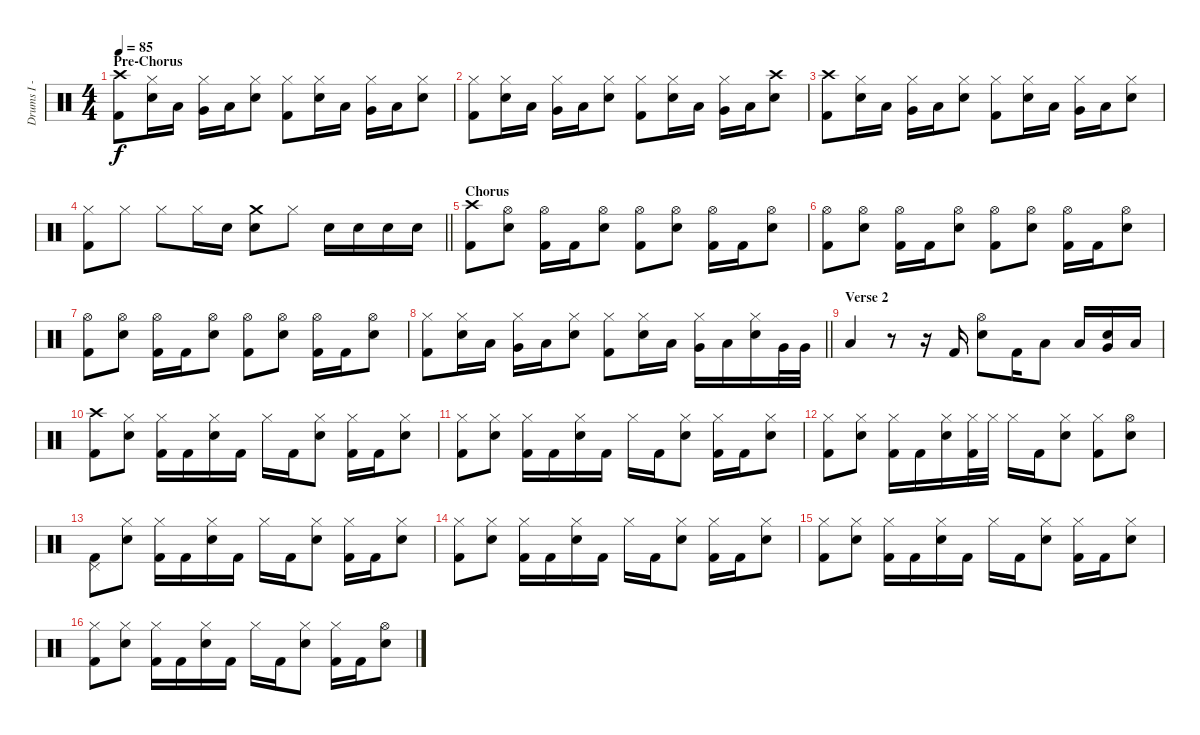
\track ("Drums I - Adam" "Drums I - ") {instrument percussion}
\staff {score}
\articulation defaults
\ts (4 4)
\section ("" "Pre-Chorus")
\tempo 85
\clef neutral
\ks c
("Kick (hit) 2" "Crash high (hit)").8{dy f} ("Snare (hit) 2" "Hi-Hat (closed)").16 "Low Tom (hit)".16 ("Very Low Tom (hit)" "Hi-Hat (closed)").16 "Low Floor Tom (hit)".16 ("Snare (hit) 2" "Hi-Hat (closed)").8 ("Kick (hit) 2" "Hi-Hat (closed)").8 ("Snare (hit) 2" "Hi-Hat (closed)").16 "Low Tom (hit)".16 ("Very Low Tom (hit)" "Hi-Hat (closed)").16 "Low Floor Tom (hit)".16 ("Snare (hit) 2" "Hi-Hat (closed)").8 |
("Kick (hit) 2" "Hi-Hat (closed)").8 ("Snare (hit) 2" "Hi-Hat (closed)").16 "Low Tom (hit)".16 ("Very Low Tom (hit)" "Hi-Hat (closed)").16 "Low Floor Tom (hit)".16 ("Snare (hit) 2" "Hi-Hat (closed)").8 ("Kick (hit) 2" "Hi-Hat (closed)").8 ("Snare (hit) 2" "Hi-Hat (closed)").16 "Low Tom (hit)".16 ("Very Low Tom (hit)" "Hi-Hat (closed)").16 "Low Floor Tom (hit)".16 ("Snare (hit) 2" "Crash high (hit)").8 |
("Kick (hit) 2" "Crash high (hit)").8 ("Snare (hit) 2" "Hi-Hat (closed)").16 "Low Tom (hit)".16 ("Very Low Tom (hit)" "Hi-Hat (closed)").16 "Low Floor Tom (hit)".16 ("Snare (hit) 2" "Hi-Hat (closed)").8 ("Kick (hit) 2" "Hi-Hat (closed)").8 ("Snare (hit) 2" "Hi-Hat (closed)").16 "Low Tom (hit)".16 ("Very Low Tom (hit)" "Hi-Hat (closed)").16 "Low Floor Tom (hit)".16 ("Snare (hit) 2" "Hi-Hat (closed)").8 |
\barLineRight lightlight
("Kick (hit) 2" "Hi-Hat (closed)").8 "Hi-Hat (closed)".8 "Hi-Hat (closed)".8 "Hi-Hat (closed)".16 "Snare (hit) 2".16 ("Snare (hit) 2" "Crash medium (hit)").8 "Hi-Hat (closed)".8 "Snare (hit) 2".16 "Snare (hit) 2".16 "Snare (hit) 2".16 "Snare (hit) 2".16 |
\section ("" "Chorus")
("Kick (hit) 2" "Crash high (hit)").8 ("Snare (hit) 2" "Hi-Hat (open)").8 ("Kick (hit) 2" "Hi-Hat (open)").16 "Kick (hit) 2".16 ("Snare (hit) 2" "Hi-Hat (open)").8 ("Kick (hit) 2" "Hi-Hat (open)").8 ("Snare (hit) 2" "Hi-Hat (open)").8 ("Kick (hit) 2" "Hi-Hat (open)").16 "Kick (hit) 2".16 ("Snare (hit) 2" "Hi-Hat (open)").8 |
("Kick (hit) 2" "Hi-Hat (open)").8 ("Snare (hit) 2" "Hi-Hat (open)").8 ("Kick (hit) 2" "Hi-Hat (open)").16 "Kick (hit) 2".16 ("Snare (hit) 2" "Hi-Hat (open)").8 ("Kick (hit) 2" "Hi-Hat (open)").8 ("Snare (hit) 2" "Hi-Hat (open)").8 ("Kick (hit) 2" "Hi-Hat (open)").16 "Kick (hit) 2".16 ("Snare (hit) 2" "Hi-Hat (open)").8 |
("Kick (hit) 2" "Hi-Hat (open)").8 ("Snare (hit) 2" "Hi-Hat (open)").8 ("Kick (hit) 2" "Hi-Hat (open)").16 "Kick (hit) 2".16 ("Snare (hit) 2" "Hi-Hat (open)").8 ("Kick (hit) 2" "Hi-Hat (open)").8 ("Snare (hit) 2" "Hi-Hat (open)").8 ("Kick (hit) 2" "Hi-Hat (open)").16 "Kick (hit) 2".16 ("Snare (hit) 2" "Hi-Hat (open)").8 |
\barLineRight lightlight
("Kick (hit) 2" "Hi-Hat (closed)").8 ("Snare (hit) 2" "Hi-Hat (closed)").16 "Low Tom (hit)".16 ("Very Low Tom (hit)" "Hi-Hat (closed)").16 "Low Floor Tom (hit)".16 ("Snare (hit) 2" "Hi-Hat (closed)").8 ("Kick (hit) 2" "Hi-Hat (closed)").8 ("Snare (hit) 2" "Hi-Hat (closed)").16 "Low Tom (hit)".16 ("Very Low Tom (hit)" "Hi-Hat (closed)").16 "Low Floor Tom (hit)".16 ("Snare (hit) 2" "Hi-Hat (closed)").16 "Very Low Tom (hit)".32 "Very Low Tom (hit)".32 |
\section ("" "Verse 2")
"Low Floor Tom (hit)".4 r.8 r.16 "Kick (hit) 2".16 ("Snare (hit) 2" "Hi-Hat (open)").8 "Kick (hit) 2".16 "Low Tom (hit)".8 "Low Tom (hit)".16 ("Snare (hit) 2" "Very Low Tom (hit)").16 "Low Floor Tom (hit)".16 |
("Kick (hit) 2" "Crash high (hit)").8 ("Snare (hit) 2" "Hi-Hat (closed)").8 ("Kick (hit) 2" "Hi-Hat (closed)").16 "Kick (hit) 2".16 ("Snare (hit) 2" "Hi-Hat (closed)").16 "Kick (hit) 2".16 "Hi-Hat (closed)".16 "Kick (hit) 2".16 ("Snare (hit) 2" "Hi-Hat (closed)").8 ("Kick (hit) 2" "Hi-Hat (closed)").16 "Kick (hit) 2".16 ("Snare (hit) 2" "Hi-Hat (closed)").8 |
("Kick (hit) 2" "Hi-Hat (closed)").8 ("Snare (hit) 2" "Hi-Hat (closed)").8 ("Kick (hit) 2" "Hi-Hat (closed)").16 "Kick (hit) 2".16 ("Snare (hit) 2" "Hi-Hat (closed)").16 "Kick (hit) 2".16 "Hi-Hat (closed)".16 "Kick (hit) 2".16 ("Snare (hit) 2" "Hi-Hat (closed)").8 ("Kick (hit) 2" "Hi-Hat (closed)").16 "Kick (hit) 2".16 ("Snare (hit) 2" "Hi-Hat (closed)").8 |
("Kick (hit) 2" "Hi-Hat (closed)").8 ("Snare (hit) 2" "Hi-Hat (closed)").8 ("Kick (hit) 2" "Hi-Hat (closed)").16 "Kick (hit) 2".16 ("Snare (hit) 2" "Hi-Hat (closed)").16 ("Kick (hit) 2" "Hi-Hat (closed)").32 "Hi-Hat (closed)".32 "Hi-Hat (closed)".16 "Kick (hit) 2".16 ("Snare (hit) 2" "Hi-Hat (closed)").8 ("Kick (hit) 2" "Hi-Hat (closed)").8 ("Snare (hit) 2" "Hi-Hat (open)").8 |
("Kick (hit) 2" "Pedal Hi-Hat (hit)").8 ("Snare (hit) 2" "Hi-Hat (closed)").8 ("Kick (hit) 2" "Hi-Hat (closed)").16 "Kick (hit) 2".16 ("Snare (hit) 2" "Hi-Hat (closed)").16 "Kick (hit) 2".16 "Hi-Hat (closed)".16 "Kick (hit) 2".16 ("Snare (hit) 2" "Hi-Hat (closed)").8 ("Kick (hit) 2" "Hi-Hat (closed)").16 "Kick (hit) 2".16 ("Snare (hit) 2" "Hi-Hat (closed)").8 |
("Kick (hit) 2" "Hi-Hat (closed)").8 ("Snare (hit) 2" "Hi-Hat (closed)").8 ("Kick (hit) 2" "Hi-Hat (closed)").16 "Kick (hit) 2".16 ("Snare (hit) 2" "Hi-Hat (closed)").16 "Kick (hit) 2".16 "Hi-Hat (closed)".16 "Kick (hit) 2".16 ("Snare (hit) 2" "Hi-Hat (closed)").8 ("Kick (hit) 2" "Hi-Hat (closed)").16 "Kick (hit) 2".16 ("Snare (hit) 2" "Hi-Hat (closed)").8 |
("Kick (hit) 2" "Hi-Hat (closed)").8 ("Snare (hit) 2" "Hi-Hat (closed)").8 ("Kick (hit) 2" "Hi-Hat (closed)").16 "Kick (hit) 2".16 ("Snare (hit) 2" "Hi-Hat (closed)").16 "Kick (hit) 2".16 "Hi-Hat (closed)".16 "Kick (hit) 2".16 ("Snare (hit) 2" "Hi-Hat (closed)").8 ("Kick (hit) 2" "Hi-Hat (closed)").16 "Kick (hit) 2".16 ("Snare (hit) 2" "Hi-Hat (closed)").8 |
("Kick (hit) 2" "Hi-Hat (closed)").8 ("Snare (hit) 2" "Hi-Hat (closed)").8 ("Kick (hit) 2" "Hi-Hat (closed)").16 "Kick (hit) 2".16 ("Snare (hit) 2" "Hi-Hat (closed)").16 "Kick (hit) 2".16 "Hi-Hat (closed)".16 "Kick (hit) 2".16 ("Snare (hit) 2" "Hi-Hat (closed)").8 ("Kick (hit) 2" "Hi-Hat (closed)").16 "Kick (hit) 2".16 ("Snare (hit) 2" "Hi-Hat (open)").8
